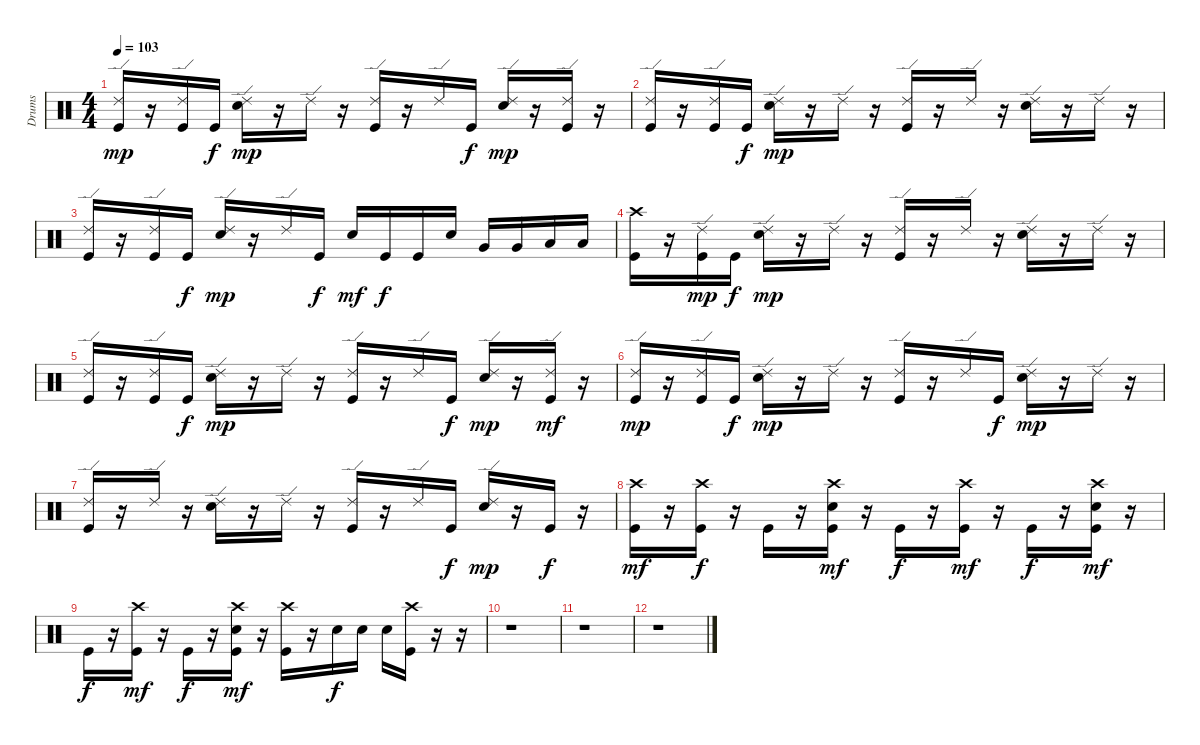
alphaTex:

\track ("Drums" "Drums") {instrument percussion}
\staff {score}
\articulation defaults
\ts (4 4)
\tempo 103
\clef neutral
\ks c
("Ride (edge) 2" "Kick (hit)").16{dy mp} r.16 ("Ride (edge) 2" "Kick (hit)").16 "Kick (hit)".16{dy f} ("Ride (edge) 2" "Snare (hit) 2").16{dy mp} r.16 "Ride (edge) 2".16 r.16 ("Ride (edge) 2" "Kick (hit)").16 r.16 "Ride (edge) 2".16 "Kick (hit)".16{dy f} ("Ride (edge) 2" "Snare (hit) 2").16{dy mp} r.16 ("Ride (edge) 2" "Kick (hit)").16 r.16 |
("Ride (edge) 2" "Kick (hit)").16 r.16 ("Ride (edge) 2" "Kick (hit)").16 "Kick (hit)".16{dy f} ("Ride (edge) 2" "Snare (hit) 2").16{dy mp} r.16 "Ride (edge) 2".16 r.16 ("Ride (edge) 2" "Kick (hit)").16 r.16 "Ride (edge) 2".16 r.16 ("Ride (edge) 2" "Snare (hit) 2").16 r.16 "Ride (edge) 2".16 r.16 |
("Ride (edge) 2" "Kick (hit)").16 r.16 ("Ride (edge) 2" "Kick (hit)").16 "Kick (hit)".16{dy f} ("Ride (edge) 2" "Snare (hit) 2").16{dy mp} r.16 "Ride (edge) 2".16 "Kick (hit)".16{dy f} "Snare (hit) 2".16{dy mf} "Kick (hit)".16{dy f} "Kick (hit)".16 "Snare (hit) 2".16 "Very Low Tom (hit)".16 "Very Low Tom (hit)".16 "Low Floor Tom (hit)".16 "Low Floor Tom (hit)".16 |
("Crash high (hit)" "Kick (hit)").16 r.16 ("Ride (edge) 2" "Kick (hit)").16{dy mp} "Kick (hit)".16{dy f} ("Ride (edge) 2" "Snare (hit) 2").16{dy mp} r.16 "Ride (edge) 2".16 r.16 ("Ride (edge) 2" "Kick (hit)").16 r.16 "Ride (edge) 2".16 r.16 ("Ride (edge) 2" "Snare (hit) 2").16 r.16 "Ride (edge) 2".16 r.16 |
("Ride (edge) 2" "Kick (hit)").16 r.16 ("Ride (edge) 2" "Kick (hit)").16 "Kick (hit)".16{dy f} ("Ride (edge) 2" "Snare (hit) 2").16{dy mp} r.16 "Ride (edge) 2".16 r.16 ("Ride (edge) 2" "Kick (hit)").16 r.16 "Ride (edge) 2".16 "Kick (hit)".16{dy f} ("Ride (edge) 2" "Snare (hit) 2").16{dy mp} r.16 ("Ride (edge) 2" "Kick (hit)").16{dy mf} r.16 |
("Ride (edge) 2" "Kick (hit)").16{dy mp} r.16 ("Ride (edge) 2" "Kick (hit)").16 "Kick (hit)".16{dy f} ("Ride (edge) 2" "Snare (hit) 2").16{dy mp} r.16 "Ride (edge) 2".16 r.16 ("Ride (edge) 2" "Kick (hit)").16 r.16 "Ride (edge) 2".16 "Kick (hit)".16{dy f} ("Ride (edge) 2" "Snare (hit) 2").16{dy mp} r.16 "Ride (edge) 2".16 r.16 |
("Ride (edge) 2" "Kick (hit)").16 r.16 "Ride (edge) 2".16 r.16 ("Ride (edge) 2" "Snare (hit) 2").16 r.16 "Ride (edge) 2".16 r.16 ("Ride (edge) 2" "Kick (hit)").16 r.16 "Ride (edge) 2".16 "Kick (hit)".16{dy f} ("Ride (edge) 2" "Snare (hit) 2").16{dy mp} r.16 "Kick (hit)".16{dy f} r.16 |
("Crash high (hit)" "Kick (hit)").16{dy mf} r.16 ("Crash high (hit)" "Kick (hit)").16{dy f} r.16 "Kick (hit)".16 r.16 ("Crash high (hit)" "Snare (hit) 2" "Kick (hit)").16{dy mf} r.16 "Kick (hit)".16{dy f} r.16 ("Crash high (hit)" "Kick (hit)").16{dy mf} r.16 "Kick (hit)".16{dy f} r.16 ("Crash high (hit)" "Snare (hit) 2" "Kick (hit)").16{dy mf} r.16 |
"Kick (hit)".16{dy f} r.16 ("Crash high (hit)" "Kick (hit)").16{dy mf} r.16 "Kick (hit)".16{dy f} r.16 ("Crash high (hit)" "Snare (hit) 2" "Kick (hit)").16{dy mf} r.16 ("Crash high (hit)" "Kick (hit)").16 r.16 "Snare (hit) 2".16{dy f} "Snare (hit) 2".16 "Snare (hit) 2".16 ("Crash high (hit)" "Kick (hit)").16 r.16 r.16 |
r.1 |
r.1 |
r.1
